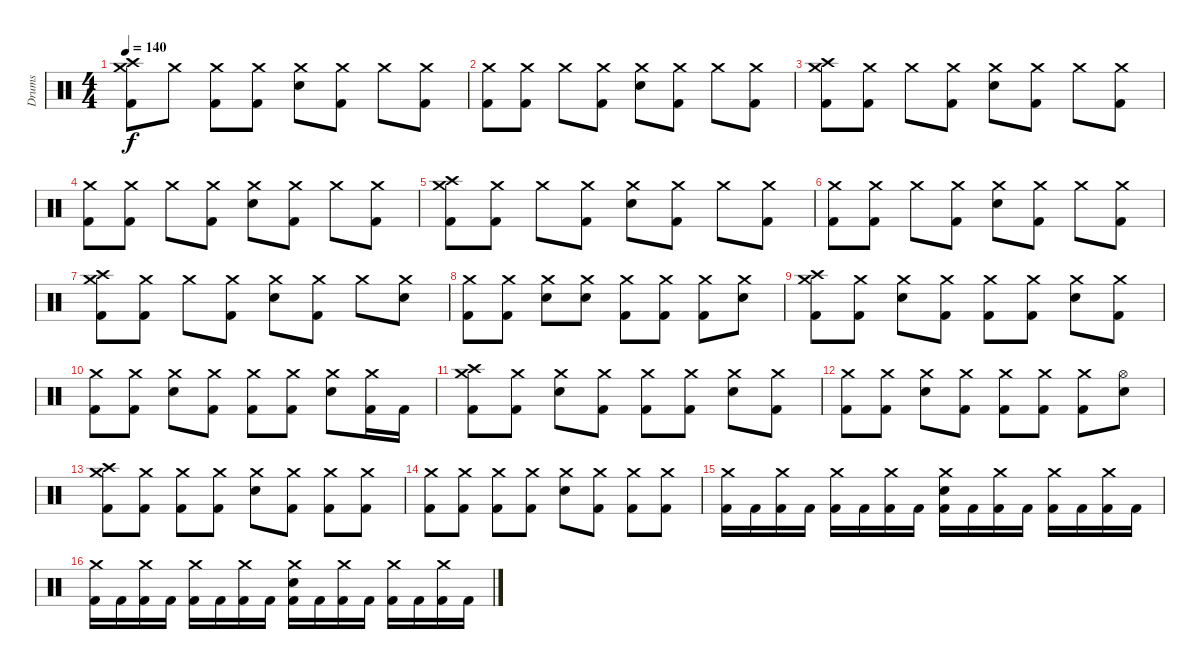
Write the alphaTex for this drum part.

\track ("Drums" "Drums") {instrument percussion}
\staff {score}
\articulation defaults
\ts (4 4)
\tempo 140
\clef neutral
\ks c
("Crash high (hit)" "Crash medium (hit)" "Kick (hit) 2").8{dy f} "Crash medium (hit)".8 ("Crash medium (hit)" "Kick (hit) 2").8 ("Crash medium (hit)" "Kick (hit) 2").8 ("Crash medium (hit)" "Snare (hit) 2").8 ("Crash medium (hit)" "Kick (hit) 2").8 "Crash medium (hit)".8 ("Crash medium (hit)" "Kick (hit) 2").8 |
("Crash medium (hit)" "Kick (hit) 2").8 ("Crash medium (hit)" "Kick (hit) 2").8 "Crash medium (hit)".8 ("Crash medium (hit)" "Kick (hit) 2").8 ("Crash medium (hit)" "Snare (hit) 2").8 ("Crash medium (hit)" "Kick (hit) 2").8 "Crash medium (hit)".8 ("Crash medium (hit)" "Kick (hit) 2").8 |
("Crash high (hit)" "Crash medium (hit)" "Kick (hit) 2").8 ("Crash medium (hit)" "Kick (hit) 2").8 "Crash medium (hit)".8 ("Crash medium (hit)" "Kick (hit) 2").8 ("Crash medium (hit)" "Snare (hit) 2").8 ("Crash medium (hit)" "Kick (hit) 2").8 "Crash medium (hit)".8 ("Crash medium (hit)" "Kick (hit) 2").8 |
("Crash medium (hit)" "Kick (hit) 2").8 ("Crash medium (hit)" "Kick (hit) 2").8 "Crash medium (hit)".8 ("Crash medium (hit)" "Kick (hit) 2").8 ("Crash medium (hit)" "Snare (hit) 2").8 ("Crash medium (hit)" "Kick (hit) 2").8 "Crash medium (hit)".8 ("Crash medium (hit)" "Kick (hit) 2").8 |
("Crash high (hit)" "Crash medium (hit)" "Kick (hit) 2").8 ("Crash medium (hit)" "Kick (hit) 2").8 "Crash medium (hit)".8 ("Crash medium (hit)" "Kick (hit) 2").8 ("Crash medium (hit)" "Snare (hit) 2").8 ("Crash medium (hit)" "Kick (hit) 2").8 "Crash medium (hit)".8 ("Crash medium (hit)" "Kick (hit) 2").8 |
("Crash medium (hit)" "Kick (hit) 2").8 ("Crash medium (hit)" "Kick (hit) 2").8 "Crash medium (hit)".8 ("Crash medium (hit)" "Kick (hit) 2").8 ("Crash medium (hit)" "Snare (hit) 2").8 ("Crash medium (hit)" "Kick (hit) 2").8 "Crash medium (hit)".8 ("Crash medium (hit)" "Kick (hit) 2").8 |
("Crash high (hit)" "Crash medium (hit)" "Kick (hit) 2").8 ("Crash medium (hit)" "Kick (hit) 2").8 "Crash medium (hit)".8 ("Crash medium (hit)" "Kick (hit) 2").8 ("Crash medium (hit)" "Snare (hit) 2").8 ("Crash medium (hit)" "Kick (hit) 2").8 "Crash medium (hit)".8 ("Crash medium (hit)" "Snare (hit) 2").8 |
("Crash medium (hit)" "Kick (hit) 2").8 ("Crash medium (hit)" "Kick (hit) 2").8 ("Crash medium (hit)" "Snare (hit) 2").8 ("Crash medium (hit)" "Snare (hit) 2").8 ("Crash medium (hit)" "Kick (hit) 2").8 ("Crash medium (hit)" "Kick (hit) 2").8 ("Crash medium (hit)" "Kick (hit) 2").8 ("Crash medium (hit)" "Snare (hit) 2").8 |
("Crash high (hit)" "Crash medium (hit)" "Kick (hit) 2").8 ("Crash medium (hit)" "Kick (hit) 2").8 ("Crash medium (hit)" "Snare (hit) 2").8 ("Crash medium (hit)" "Kick (hit) 2").8 ("Crash medium (hit)" "Kick (hit) 2").8 ("Crash medium (hit)" "Kick (hit) 2").8 ("Crash medium (hit)" "Snare (hit) 2").8 ("Crash medium (hit)" "Kick (hit) 2").8 |
("Crash medium (hit)" "Kick (hit) 2").8 ("Crash medium (hit)" "Kick (hit) 2").8 ("Crash medium (hit)" "Snare (hit) 2").8 ("Crash medium (hit)" "Kick (hit) 2").8 ("Crash medium (hit)" "Kick (hit) 2").8 ("Crash medium (hit)" "Kick (hit) 2").8 ("Crash medium (hit)" "Snare (hit) 2").8 ("Crash medium (hit)" "Kick (hit) 2").16 "Kick (hit) 2".16 |
("Crash high (hit)" "Crash medium (hit)" "Kick (hit) 2").8 ("Crash medium (hit)" "Kick (hit) 2").8 ("Crash medium (hit)" "Snare (hit) 2").8 ("Crash medium (hit)" "Kick (hit) 2").8 ("Crash medium (hit)" "Kick (hit) 2").8 ("Crash medium (hit)" "Kick (hit) 2").8 ("Crash medium (hit)" "Snare (hit) 2").8 ("Crash medium (hit)" "Kick (hit) 2").8 |
("Crash medium (hit)" "Kick (hit) 2").8 ("Crash medium (hit)" "Kick (hit) 2").8 ("Crash medium (hit)" "Snare (hit) 2").8 ("Crash medium (hit)" "Kick (hit) 2").8 ("Crash medium (hit)" "Kick (hit) 2").8 ("Crash medium (hit)" "Kick (hit) 2").8 ("Crash medium (hit)" "Kick (hit) 2").8 ("Hi-Hat (open)" "Snare (hit) 2").8 |
("Crash high (hit)" "Crash medium (hit)" "Kick (hit) 2").8 ("Crash medium (hit)" "Kick (hit) 2").8 ("Crash medium (hit)" "Kick (hit) 2").8 ("Crash medium (hit)" "Kick (hit) 2").8 ("Crash medium (hit)" "Snare (hit) 2").8 ("Crash medium (hit)" "Kick (hit) 2").8 ("Crash medium (hit)" "Kick (hit) 2").8 ("Crash medium (hit)" "Kick (hit) 2").8 |
("Crash medium (hit)" "Kick (hit) 2").8 ("Crash medium (hit)" "Kick (hit) 2").8 ("Crash medium (hit)" "Kick (hit) 2").8 ("Crash medium (hit)" "Kick (hit) 2").8 ("Crash medium (hit)" "Snare (hit) 2").8 ("Crash medium (hit)" "Kick (hit) 2").8 ("Crash medium (hit)" "Kick (hit) 2").8 ("Crash medium (hit)" "Kick (hit) 2").8 |
("Crash medium (hit)" "Kick (hit) 2").16 "Kick (hit) 2".16 ("Crash medium (hit)" "Kick (hit) 2").16 "Kick (hit) 2".16 ("Crash medium (hit)" "Kick (hit) 2").16 "Kick (hit) 2".16 ("Crash medium (hit)" "Kick (hit) 2").16 "Kick (hit) 2".16 ("Crash medium (hit)" "Snare (hit) 2" "Kick (hit) 2").16 "Kick (hit) 2".16 ("Crash medium (hit)" "Kick (hit) 2").16 "Kick (hit) 2".16 ("Crash medium (hit)" "Kick (hit) 2").16 "Kick (hit) 2".16 ("Crash medium (hit)" "Kick (hit) 2").16 "Kick (hit) 2".16 |
("Crash medium (hit)" "Kick (hit) 2").16 "Kick (hit) 2".16 ("Crash medium (hit)" "Kick (hit) 2").16 "Kick (hit) 2".16 ("Crash medium (hit)" "Kick (hit) 2").16 "Kick (hit) 2".16 ("Crash medium (hit)" "Kick (hit) 2").16 "Kick (hit) 2".16 ("Crash medium (hit)" "Snare (hit) 2" "Kick (hit) 2").16 "Kick (hit) 2".16 ("Crash medium (hit)" "Kick (hit) 2").16 "Kick (hit) 2".16 ("Crash medium (hit)" "Kick (hit) 2").16 "Kick (hit) 2".16 ("Crash medium (hit)" "Kick (hit) 2").16 "Kick (hit) 2".16
